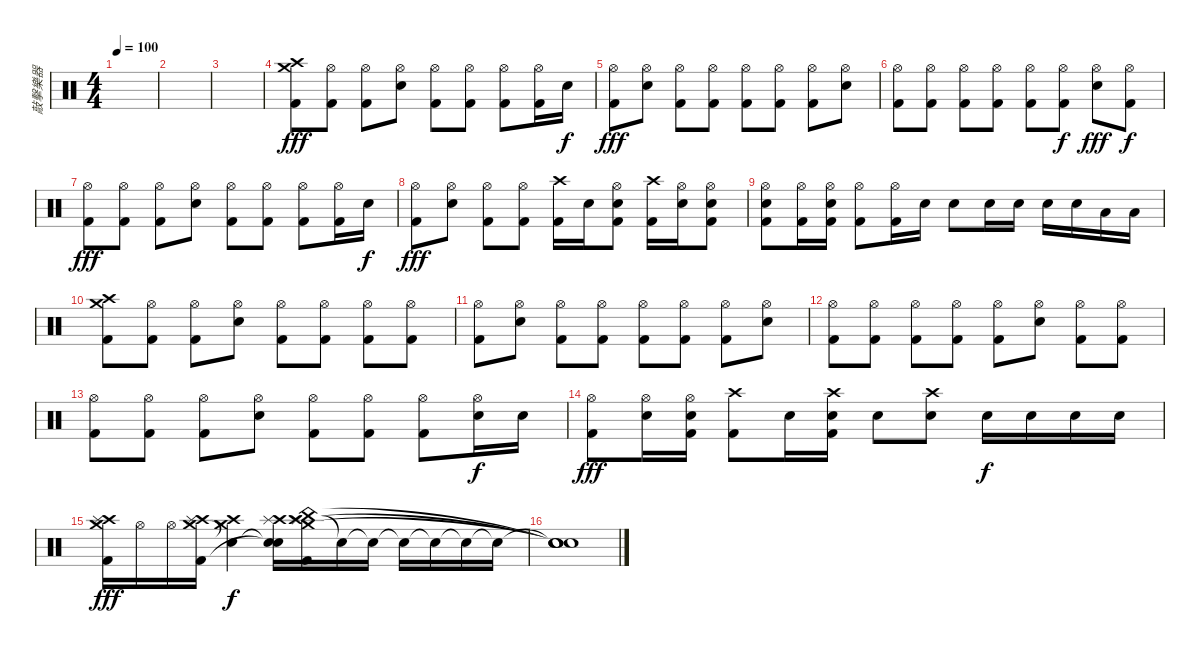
\track ("敲擊樂器" "敲擊樂器") {instrument percussion}
\staff {score}
\articulation defaults
\ts (4 4)
\tempo 100
\clef neutral
\ks c
|
|
|
("Crash high (hit)" "Crash medium (hit)" "Kick (hit) 2").8{dy fff} ("Hi-Hat (open)" "Kick (hit) 2").8 ("Hi-Hat (open)" "Kick (hit) 2").8 ("Hi-Hat (open)" "Electric Snare (hit)").8 ("Hi-Hat (open)" "Kick (hit) 2").8 ("Hi-Hat (open)" "Kick (hit) 2").8 ("Hi-Hat (open)" "Kick (hit) 2").8 ("Hi-Hat (open)" "Kick (hit) 2").16 "Electric Snare (hit)".16{dy f} |
("Hi-Hat (open)" "Kick (hit) 2").8{dy fff} ("Hi-Hat (open)" "Electric Snare (hit)").8 ("Hi-Hat (open)" "Kick (hit) 2").8 ("Hi-Hat (open)" "Kick (hit) 2").8 ("Hi-Hat (open)" "Kick (hit) 2").8 ("Hi-Hat (open)" "Kick (hit) 2").8 ("Hi-Hat (open)" "Kick (hit) 2").8 ("Hi-Hat (open)" "Electric Snare (hit)").8 |
("Hi-Hat (open)" "Kick (hit) 2").8 ("Hi-Hat (open)" "Kick (hit) 2").8 ("Hi-Hat (open)" "Kick (hit) 2").8 ("Hi-Hat (open)" "Kick (hit) 2").8 ("Hi-Hat (open)" "Kick (hit) 2").8 ("Hi-Hat (open)" "Kick (hit) 2").8{dy f} ("Hi-Hat (open)" "Electric Snare (hit)").8{dy fff} ("Hi-Hat (open)" "Kick (hit) 2").8{dy f} |
("Hi-Hat (open)" "Kick (hit) 2").8{dy fff} ("Hi-Hat (open)" "Kick (hit) 2").8 ("Hi-Hat (open)" "Kick (hit) 2").8 ("Hi-Hat (open)" "Electric Snare (hit)").8 ("Hi-Hat (open)" "Kick (hit) 2").8 ("Hi-Hat (open)" "Kick (hit) 2").8 ("Hi-Hat (open)" "Kick (hit) 2").8 ("Hi-Hat (open)" "Kick (hit) 2").16 "Electric Snare (hit)".16{dy f} |
("Hi-Hat (open)" "Kick (hit) 2").8{dy fff} ("Hi-Hat (open)" "Electric Snare (hit)").8 ("Hi-Hat (open)" "Kick (hit) 2").8 ("Hi-Hat (open)" "Kick (hit) 2").8 ("Crash high (hit)" "Kick (hit) 2").16 "Electric Snare (hit)".16 ("Hi-Hat (open)" "Electric Snare (hit)" "Kick (hit) 2").8 ("Crash high (hit)" "Kick (hit) 2").16 ("Hi-Hat (open)" "Electric Snare (hit)").16 ("Hi-Hat (open)" "Electric Snare (hit)" "Kick (hit) 2").8 |
("Hi-Hat (open)" "Electric Snare (hit)" "Kick (hit) 2").8 ("Hi-Hat (open)" "Kick (hit) 2").16 ("Hi-Hat (open)" "Electric Snare (hit)" "Kick (hit) 2").16 ("Hi-Hat (open)" "Kick (hit) 2").8 ("Hi-Hat (open)" "Kick (hit) 2").16 "Electric Snare (hit)".16 "Electric Snare (hit)".8 "Electric Snare (hit)".16 "Electric Snare (hit)".16 "Electric Snare (hit)".16 "Electric Snare (hit)".16 "Low Tom (hit)".16 "Low Tom (hit)".16 |
("Crash high (hit)" "Crash medium (hit)" "Kick (hit) 2").8 ("Hi-Hat (open)" "Kick (hit) 2").8 ("Hi-Hat (open)" "Kick (hit) 2").8 ("Hi-Hat (open)" "Electric Snare (hit)").8 ("Hi-Hat (open)" "Kick (hit) 2").8 ("Hi-Hat (open)" "Kick (hit) 2").8 ("Hi-Hat (open)" "Kick (hit) 2").8 ("Hi-Hat (open)" "Kick (hit) 2").8 |
("Hi-Hat (open)" "Kick (hit) 2").8 ("Hi-Hat (open)" "Electric Snare (hit)").8 ("Hi-Hat (open)" "Kick (hit) 2").8 ("Hi-Hat (open)" "Kick (hit) 2").8 ("Hi-Hat (open)" "Kick (hit) 2").8 ("Hi-Hat (open)" "Kick (hit) 2").8 ("Hi-Hat (open)" "Kick (hit) 2").8 ("Hi-Hat (open)" "Electric Snare (hit)").8 |
("Hi-Hat (open)" "Kick (hit) 2").8 ("Hi-Hat (open)" "Kick (hit) 2").8 ("Hi-Hat (open)" "Kick (hit) 2").8 ("Hi-Hat (open)" "Kick (hit) 2").8 ("Hi-Hat (open)" "Kick (hit) 2").8 ("Hi-Hat (open)" "Electric Snare (hit)").8 ("Hi-Hat (open)" "Kick (hit) 2").8 ("Hi-Hat (open)" "Kick (hit) 2").8 |
("Hi-Hat (open)" "Kick (hit) 2").8 ("Hi-Hat (open)" "Kick (hit) 2").8 ("Hi-Hat (open)" "Kick (hit) 2").8 ("Hi-Hat (open)" "Electric Snare (hit)").8 ("Hi-Hat (open)" "Kick (hit) 2").8 ("Hi-Hat (open)" "Kick (hit) 2").8 ("Hi-Hat (open)" "Kick (hit) 2").8 ("Hi-Hat (open)" "Electric Snare (hit)").16{dy f} "Electric Snare (hit)".16 |
("Hi-Hat (open)" "Kick (hit) 2").8{dy fff} ("Hi-Hat (open)" "Electric Snare (hit)").16 ("Hi-Hat (open)" "Electric Snare (hit)" "Kick (hit) 2").16 ("Crash high (hit)" "Kick (hit) 2").8 "Electric Snare (hit)".16 ("Crash high (hit)" "Electric Snare (hit)" "Kick (hit) 2").16 "Electric Snare (hit)".8 ("Crash high (hit)" "Electric Snare (hit)").8 "Electric Snare (hit)".16{dy f} "Electric Snare (hit)".16 "Electric Snare (hit)".16 "Electric Snare (hit)".16 |
("Crash high (hit)" "Crash medium (hit)" "Splash (hit)" "Kick (hit) 2").16{dy fff} "Hi-Hat (open)".16 "Hi-Hat (open)".16 ("Crash high (hit)" "Splash (hit)" "Crash medium (hit)" "Kick (hit) 2").16 ("Crash high (hit)" "Crash medium (hit)" "Snare (hit)"{t}).4{dy f} ("Crash high (hit)" "Splash (hit)" "Snare (hit)"{t} "Snare (hit)"{t}).16 ("Crash high (hit)" "Crash medium (hit)" "Splash (hit)" "China (hit)" "Kick (hit) 2").16 "Snare (hit)"{t}.16 "Snare (hit)"{t}.16 "Snare (hit)"{t}.16 "Snare (hit)"{t}.16 "Snare (hit)"{t}.16 "Snare (hit)"{t}.16 |
("Snare (hit)"{t} "Snare (hit)"{t} "Snare (hit)"{t} "Snare (hit)"{t}).1
